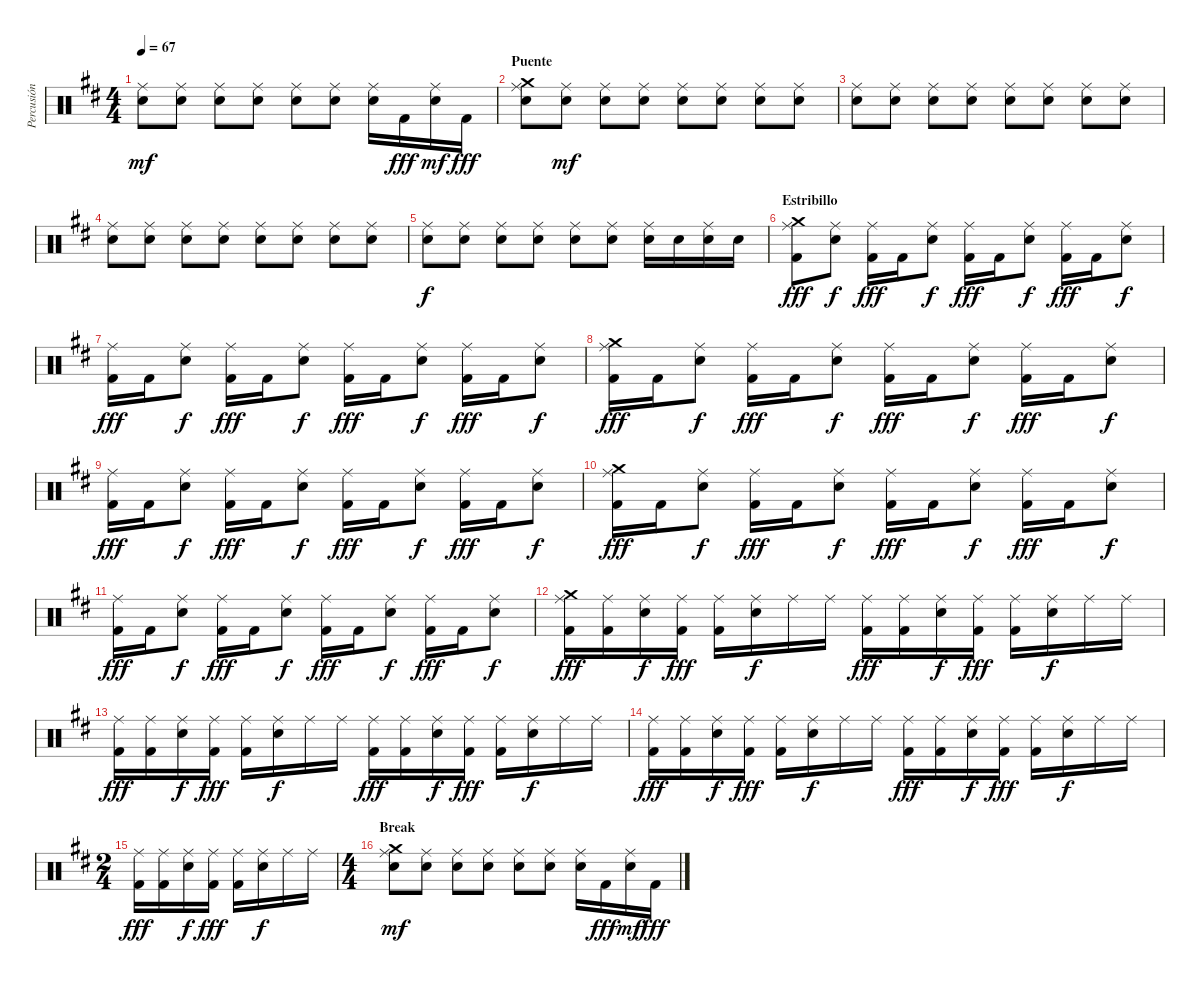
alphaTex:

\track ("Percusión" "Percusión") {instrument percussion}
\staff {score}
\articulation defaults
\ts (4 4)
\tempo 67
\clef neutral
\ks bminor
("Snare (hit) 2" "Ride (middle)").8{dy mf} ("Snare (hit) 2" "Ride (middle)").8 ("Snare (hit) 2" "Ride (middle)").8 ("Snare (hit) 2" "Ride (middle)").8 ("Snare (hit) 2" "Ride (middle)").8 ("Snare (hit) 2" "Ride (middle)").8 ("Snare (hit) 2" "Ride (middle)").16 "Kick (hit) 2".16{dy fff} ("Snare (hit) 2" "Ride (middle)").16{dy mf} "Kick (hit) 2".16{dy fff} |
\section ("" "Puente")
("Snare (hit) 2" "Ride (middle)" "Crash medium (hit)").8 ("Snare (hit) 2" "Ride (middle)").8{dy mf} ("Snare (hit) 2" "Ride (middle)").8 ("Snare (hit) 2" "Ride (middle)").8 ("Snare (hit) 2" "Ride (middle)").8 ("Snare (hit) 2" "Ride (middle)").8 ("Snare (hit) 2" "Ride (middle)").8 ("Snare (hit) 2" "Ride (middle)").8 |
("Snare (hit) 2" "Ride (middle)").8 ("Snare (hit) 2" "Ride (middle)").8 ("Snare (hit) 2" "Ride (middle)").8 ("Snare (hit) 2" "Ride (middle)").8 ("Snare (hit) 2" "Ride (middle)").8 ("Snare (hit) 2" "Ride (middle)").8 ("Snare (hit) 2" "Ride (middle)").8 ("Snare (hit) 2" "Ride (middle)").8 |
("Snare (hit) 2" "Ride (middle)").8 ("Snare (hit) 2" "Ride (middle)").8 ("Snare (hit) 2" "Ride (middle)").8 ("Snare (hit) 2" "Ride (middle)").8 ("Snare (hit) 2" "Ride (middle)").8 ("Snare (hit) 2" "Ride (middle)").8 ("Snare (hit) 2" "Ride (middle)").8 ("Snare (hit) 2" "Ride (middle)").8 |
("Snare (hit) 2" "Ride (middle)").8{dy f} ("Snare (hit) 2" "Ride (middle)").8 ("Snare (hit) 2" "Ride (middle)").8 ("Snare (hit) 2" "Ride (middle)").8 ("Snare (hit) 2" "Ride (middle)").8 ("Snare (hit) 2" "Ride (middle)").8 ("Snare (hit) 2" "Ride (middle)").16 "Snare (hit) 2".16 ("Snare (hit) 2" "Ride (middle)").16 "Snare (hit) 2".16 |
\section ("" "Estribillo")
("Ride (middle)" "Kick (hit) 2" "Crash medium (hit)").8{dy fff} ("Snare (hit) 2" "Ride (middle)").8{dy f} ("Ride (middle)" "Kick (hit) 2").16{dy fff} "Kick (hit) 2".16 ("Snare (hit) 2" "Ride (middle)").8{dy f} ("Ride (middle)" "Kick (hit) 2").16{dy fff} "Kick (hit) 2".16 ("Snare (hit) 2" "Ride (middle)").8{dy f} ("Ride (middle)" "Kick (hit) 2").16{dy fff} "Kick (hit) 2".16 ("Snare (hit) 2" "Ride (middle)").8{dy f} |
("Ride (middle)" "Kick (hit) 2").16{dy fff} "Kick (hit) 2".16 ("Snare (hit) 2" "Ride (middle)").8{dy f} ("Ride (middle)" "Kick (hit) 2").16{dy fff} "Kick (hit) 2".16 ("Snare (hit) 2" "Ride (middle)").8{dy f} ("Ride (middle)" "Kick (hit) 2").16{dy fff} "Kick (hit) 2".16 ("Snare (hit) 2" "Ride (middle)").8{dy f} ("Ride (middle)" "Kick (hit) 2").16{dy fff} "Kick (hit) 2".16 ("Snare (hit) 2" "Ride (middle)").8{dy f} |
("Ride (middle)" "Kick (hit) 2" "Crash medium (hit)").16{dy fff} "Kick (hit) 2".16 ("Snare (hit) 2" "Ride (middle)").8{dy f} ("Ride (middle)" "Kick (hit) 2").16{dy fff} "Kick (hit) 2".16 ("Snare (hit) 2" "Ride (middle)").8{dy f} ("Ride (middle)" "Kick (hit) 2").16{dy fff} "Kick (hit) 2".16 ("Snare (hit) 2" "Ride (middle)").8{dy f} ("Ride (middle)" "Kick (hit) 2").16{dy fff} "Kick (hit) 2".16 ("Snare (hit) 2" "Ride (middle)").8{dy f} |
("Ride (middle)" "Kick (hit) 2").16{dy fff} "Kick (hit) 2".16 ("Snare (hit) 2" "Ride (middle)").8{dy f} ("Ride (middle)" "Kick (hit) 2").16{dy fff} "Kick (hit) 2".16 ("Snare (hit) 2" "Ride (middle)").8{dy f} ("Ride (middle)" "Kick (hit) 2").16{dy fff} "Kick (hit) 2".16 ("Snare (hit) 2" "Ride (middle)").8{dy f} ("Ride (middle)" "Kick (hit) 2").16{dy fff} "Kick (hit) 2".16 ("Snare (hit) 2" "Ride (middle)").8{dy f} |
("Ride (middle)" "Kick (hit) 2" "Crash medium (hit)").16{dy fff} "Kick (hit) 2".16 ("Snare (hit) 2" "Ride (middle)").8{dy f} ("Ride (middle)" "Kick (hit) 2").16{dy fff} "Kick (hit) 2".16 ("Snare (hit) 2" "Ride (middle)").8{dy f} ("Ride (middle)" "Kick (hit) 2").16{dy fff} "Kick (hit) 2".16 ("Snare (hit) 2" "Ride (middle)").8{dy f} ("Ride (middle)" "Kick (hit) 2").16{dy fff} "Kick (hit) 2".16 ("Snare (hit) 2" "Ride (middle)").8{dy f} |
("Ride (middle)" "Kick (hit) 2").16{dy fff} "Kick (hit) 2".16 ("Snare (hit) 2" "Ride (middle)").8{dy f} ("Ride (middle)" "Kick (hit) 2").16{dy fff} "Kick (hit) 2".16 ("Snare (hit) 2" "Ride (middle)").8{dy f} ("Ride (middle)" "Kick (hit) 2").16{dy fff} "Kick (hit) 2".16 ("Snare (hit) 2" "Ride (middle)").8{dy f} ("Ride (middle)" "Kick (hit) 2").16{dy fff} "Kick (hit) 2".16 ("Snare (hit) 2" "Ride (middle)").8{dy f} |
("Ride (middle)" "Kick (hit) 2" "Crash medium (hit)").16{dy fff} ("Ride (middle)" "Kick (hit) 2").16 ("Snare (hit) 2" "Ride (middle)").16{dy f} ("Ride (middle)" "Kick (hit) 2").16{dy fff} ("Ride (middle)" "Kick (hit) 2").16 ("Snare (hit) 2" "Ride (middle)").16{dy f} "Ride (middle)".16 "Ride (middle)".16 ("Ride (middle)" "Kick (hit) 2").16{dy fff} ("Ride (middle)" "Kick (hit) 2").16 ("Snare (hit) 2" "Ride (middle)").16{dy f} ("Ride (middle)" "Kick (hit) 2").16{dy fff} ("Ride (middle)" "Kick (hit) 2").16 ("Snare (hit) 2" "Ride (middle)").16{dy f} "Ride (middle)".16 "Ride (middle)".16 |
("Ride (middle)" "Kick (hit) 2").16{dy fff} ("Ride (middle)" "Kick (hit) 2").16 ("Snare (hit) 2" "Ride (middle)").16{dy f} ("Ride (middle)" "Kick (hit) 2").16{dy fff} ("Ride (middle)" "Kick (hit) 2").16 ("Snare (hit) 2" "Ride (middle)").16{dy f} "Ride (middle)".16 "Ride (middle)".16 ("Ride (middle)" "Kick (hit) 2").16{dy fff} ("Ride (middle)" "Kick (hit) 2").16 ("Snare (hit) 2" "Ride (middle)").16{dy f} ("Ride (middle)" "Kick (hit) 2").16{dy fff} ("Ride (middle)" "Kick (hit) 2").16 ("Snare (hit) 2" "Ride (middle)").16{dy f} "Ride (middle)".16 "Ride (middle)".16 |
("Ride (middle)" "Kick (hit) 2").16{dy fff} ("Ride (middle)" "Kick (hit) 2").16 ("Snare (hit) 2" "Ride (middle)").16{dy f} ("Ride (middle)" "Kick (hit) 2").16{dy fff} ("Ride (middle)" "Kick (hit) 2").16 ("Snare (hit) 2" "Ride (middle)").16{dy f} "Ride (middle)".16 "Ride (middle)".16 ("Ride (middle)" "Kick (hit) 2").16{dy fff} ("Ride (middle)" "Kick (hit) 2").16 ("Snare (hit) 2" "Ride (middle)").16{dy f} ("Ride (middle)" "Kick (hit) 2").16{dy fff} ("Ride (middle)" "Kick (hit) 2").16 ("Snare (hit) 2" "Ride (middle)").16{dy f} "Ride (middle)".16 "Ride (middle)".16 |
\ts (2 4)
("Ride (middle)" "Kick (hit) 2").16{dy fff} ("Ride (middle)" "Kick (hit) 2").16 ("Snare (hit) 2" "Ride (middle)").16{dy f} ("Ride (middle)" "Kick (hit) 2").16{dy fff} ("Ride (middle)" "Kick (hit) 2").16 ("Snare (hit) 2" "Ride (middle)").16{dy f} "Ride (middle)".16 "Ride (middle)".16 |
\ts (4 4)
\section ("" "Break")
("Snare (hit) 2" "Ride (middle)" "Crash medium (hit)").8{dy mf} ("Snare (hit) 2" "Ride (middle)").8 ("Snare (hit) 2" "Ride (middle)").8 ("Snare (hit) 2" "Ride (middle)").8 ("Snare (hit) 2" "Ride (middle)").8 ("Snare (hit) 2" "Ride (middle)").8 ("Snare (hit) 2" "Ride (middle)").16 "Kick (hit) 2".16{dy fff} ("Snare (hit) 2" "Ride (middle)").16{dy mf} "Kick (hit) 2".16{dy fff}
